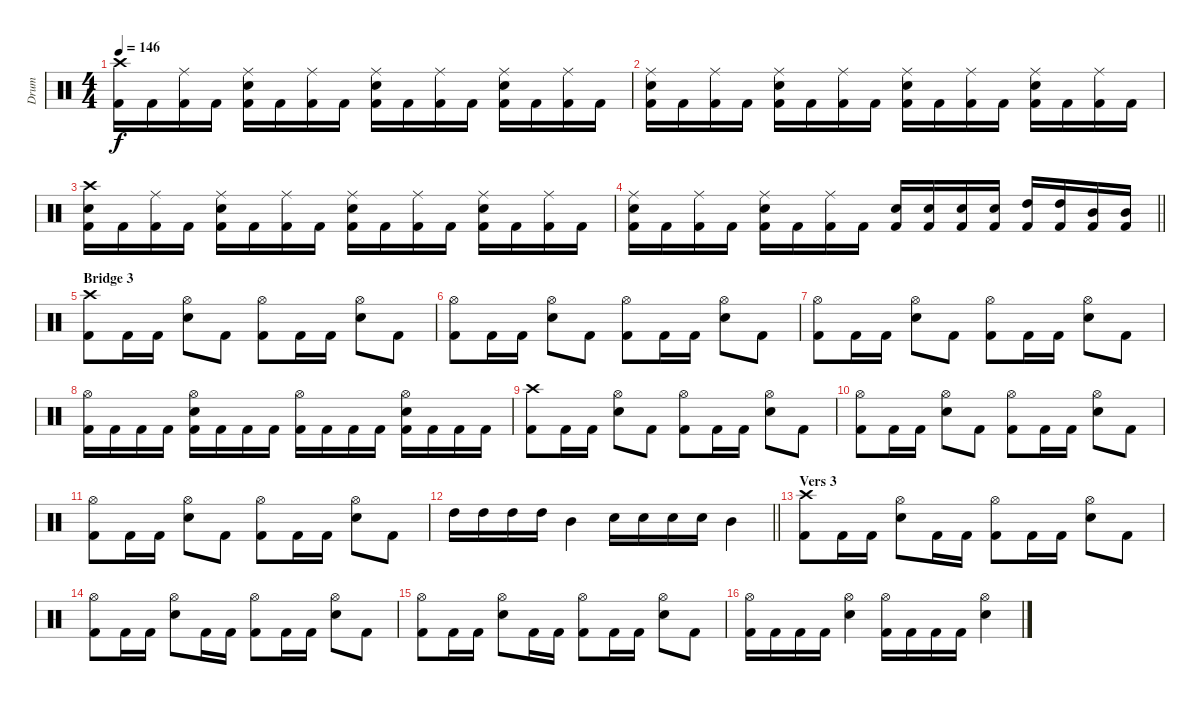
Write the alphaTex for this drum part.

\track ("Drum" "Drum") {instrument percussion}
\staff {score}
\articulation defaults
\ts (4 4)
\tempo 146
\clef neutral
\ks c
("Crash high (hit)" "Kick (hit) 2").16{dy f} "Kick (hit) 2".16 ("Ride (middle)" "Kick (hit) 2").16 "Kick (hit) 2".16 ("Ride (middle)" "Electric Snare (hit)" "Kick (hit) 2").16 "Kick (hit) 2".16 ("Ride (middle)" "Kick (hit) 2").16 "Kick (hit) 2".16 ("Ride (middle)" "Electric Snare (hit)" "Kick (hit) 2").16 "Kick (hit) 2".16 ("Ride (middle)" "Kick (hit) 2").16 "Kick (hit) 2".16 ("Ride (middle)" "Electric Snare (hit)" "Kick (hit) 2").16 "Kick (hit) 2".16 ("Ride (middle)" "Kick (hit) 2").16 "Kick (hit) 2".16 |
("Ride (middle)" "Electric Snare (hit)" "Kick (hit) 2").16 "Kick (hit) 2".16 ("Ride (middle)" "Kick (hit) 2").16 "Kick (hit) 2".16 ("Ride (middle)" "Electric Snare (hit)" "Kick (hit) 2").16 "Kick (hit) 2".16 ("Ride (middle)" "Kick (hit) 2").16 "Kick (hit) 2".16 ("Ride (middle)" "Electric Snare (hit)" "Kick (hit) 2").16 "Kick (hit) 2".16 ("Ride (middle)" "Kick (hit) 2").16 "Kick (hit) 2".16 ("Ride (middle)" "Electric Snare (hit)" "Kick (hit) 2").16 "Kick (hit) 2".16 ("Ride (middle)" "Kick (hit) 2").16 "Kick (hit) 2".16 |
("Crash high (hit)" "Electric Snare (hit)" "Kick (hit) 2").16 "Kick (hit) 2".16 ("Ride (middle)" "Kick (hit) 2").16 "Kick (hit) 2".16 ("Ride (middle)" "Electric Snare (hit)" "Kick (hit) 2").16 "Kick (hit) 2".16 ("Ride (middle)" "Kick (hit) 2").16 "Kick (hit) 2".16 ("Ride (middle)" "Electric Snare (hit)" "Kick (hit) 2").16 "Kick (hit) 2".16 ("Ride (middle)" "Kick (hit) 2").16 "Kick (hit) 2".16 ("Ride (middle)" "Electric Snare (hit)" "Kick (hit) 2").16 "Kick (hit) 2".16 ("Ride (middle)" "Kick (hit) 2").16 "Kick (hit) 2".16 |
\barLineRight lightlight
("Ride (middle)" "Electric Snare (hit)" "Kick (hit) 2").16 "Kick (hit) 2".16 ("Ride (middle)" "Kick (hit) 2").16 "Kick (hit) 2".16 ("Ride (middle)" "Electric Snare (hit)" "Kick (hit) 2").16 "Kick (hit) 2".16 ("Ride (middle)" "Kick (hit) 2").16 "Kick (hit) 2".16 ("Electric Snare (hit)" "Kick (hit) 2").16 ("Electric Snare (hit)" "Kick (hit) 2").16 ("Electric Snare (hit)" "Kick (hit) 2").16 ("Electric Snare (hit)" "Kick (hit) 2").16 ("High Tom (hit)" "Kick (hit) 2").16 ("High Tom (hit)" "Kick (hit) 2").16 ("Mid Tom (hit)" "Kick (hit) 2").16 ("Mid Tom (hit)" "Kick (hit) 2").16 |
\section ("" "Bridge 3")
("Crash high (hit)" "Kick (hit) 2").8 "Kick (hit) 2".16 "Kick (hit) 2".16 ("Hi-Hat (open)" "Electric Snare (hit)").8 "Kick (hit) 2".8 ("Hi-Hat (open)" "Kick (hit) 2").8 "Kick (hit) 2".16 "Kick (hit) 2".16 ("Hi-Hat (open)" "Electric Snare (hit)").8 "Kick (hit) 2".8 |
("Hi-Hat (open)" "Kick (hit) 2").8 "Kick (hit) 2".16 "Kick (hit) 2".16 ("Hi-Hat (open)" "Electric Snare (hit)").8 "Kick (hit) 2".8 ("Hi-Hat (open)" "Kick (hit) 2").8 "Kick (hit) 2".16 "Kick (hit) 2".16 ("Hi-Hat (open)" "Electric Snare (hit)").8 "Kick (hit) 2".8 |
("Hi-Hat (open)" "Kick (hit) 2").8 "Kick (hit) 2".16 "Kick (hit) 2".16 ("Hi-Hat (open)" "Electric Snare (hit)").8 "Kick (hit) 2".8 ("Hi-Hat (open)" "Kick (hit) 2").8 "Kick (hit) 2".16 "Kick (hit) 2".16 ("Hi-Hat (open)" "Electric Snare (hit)").8 "Kick (hit) 2".8 |
("Hi-Hat (open)" "Kick (hit) 2").16 "Kick (hit) 2".16 "Kick (hit) 2".16 "Kick (hit) 2".16 ("Hi-Hat (open)" "Electric Snare (hit)" "Kick (hit) 2").16 "Kick (hit) 2".16 "Kick (hit) 2".16 "Kick (hit) 2".16 ("Hi-Hat (open)" "Kick (hit) 2").16 "Kick (hit) 2".16 "Kick (hit) 2".16 "Kick (hit) 2".16 ("Hi-Hat (open)" "Electric Snare (hit)" "Kick (hit) 2").16 "Kick (hit) 2".16 "Kick (hit) 2".16 "Kick (hit) 2".16 |
("Crash high (hit)" "Kick (hit) 2").8 "Kick (hit) 2".16 "Kick (hit) 2".16 ("Hi-Hat (open)" "Electric Snare (hit)").8 "Kick (hit) 2".8 ("Hi-Hat (open)" "Kick (hit) 2").8 "Kick (hit) 2".16 "Kick (hit) 2".16 ("Hi-Hat (open)" "Electric Snare (hit)").8 "Kick (hit) 2".8 |
("Hi-Hat (open)" "Kick (hit) 2").8 "Kick (hit) 2".16 "Kick (hit) 2".16 ("Hi-Hat (open)" "Electric Snare (hit)").8 "Kick (hit) 2".8 ("Hi-Hat (open)" "Kick (hit) 2").8 "Kick (hit) 2".16 "Kick (hit) 2".16 ("Hi-Hat (open)" "Electric Snare (hit)").8 "Kick (hit) 2".8 |
("Hi-Hat (open)" "Kick (hit) 2").8 "Kick (hit) 2".16 "Kick (hit) 2".16 ("Hi-Hat (open)" "Electric Snare (hit)").8 "Kick (hit) 2".8 ("Hi-Hat (open)" "Kick (hit) 2").8 "Kick (hit) 2".16 "Kick (hit) 2".16 ("Hi-Hat (open)" "Electric Snare (hit)").8 "Kick (hit) 2".8 |
\barLineRight lightlight "High Tom (hit)".16 "High Tom (hit)".16 "High Tom (hit)".16 "High Tom (hit)".16 "Mid Tom (hit)".4 "Electric Snare (hit)".16 "Electric Snare (hit)".16 "Electric Snare (hit)".16 "Electric Snare (hit)".16 "Mid Tom (hit)".4
|
\section ("" "Vers 3")
("Crash high (hit)" "Kick (hit) 2").8 "Kick (hit) 2".16 "Kick (hit) 2".16 ("Hi-Hat (open)" "Electric Snare (hit)").8 "Kick (hit) 2".16 "Kick (hit) 2".16 ("Hi-Hat (open)" "Kick (hit) 2").8 "Kick (hit) 2".16 "Kick (hit) 2".16 ("Hi-Hat (open)" "Electric Snare (hit)").8 "Kick (hit) 2".8 |
("Hi-Hat (open)" "Kick (hit) 2").8 "Kick (hit) 2".16 "Kick (hit) 2".16 ("Hi-Hat (open)" "Electric Snare (hit)").8 "Kick (hit) 2".16 "Kick (hit) 2".16 ("Hi-Hat (open)" "Kick (hit) 2").8 "Kick (hit) 2".16 "Kick (hit) 2".16 ("Hi-Hat (open)" "Electric Snare (hit)").8 "Kick (hit) 2".8 |
("Hi-Hat (open)" "Kick (hit) 2").8 "Kick (hit) 2".16 "Kick (hit) 2".16 ("Hi-Hat (open)" "Electric Snare (hit)").8 "Kick (hit) 2".16 "Kick (hit) 2".16 ("Hi-Hat (open)" "Kick (hit) 2").8 "Kick (hit) 2".16 "Kick (hit) 2".16 ("Hi-Hat (open)" "Electric Snare (hit)").8 "Kick (hit) 2".8 |
("Hi-Hat (open)" "Kick (hit) 2").16 "Kick (hit) 2".16 "Kick (hit) 2".16 "Kick (hit) 2".16 ("Hi-Hat (open)" "Electric Snare (hit)").4 ("Hi-Hat (open)" "Kick (hit) 2").16 "Kick (hit) 2".16 "Kick (hit) 2".16 "Kick (hit) 2".16 ("Hi-Hat (open)" "Electric Snare (hit)").4
